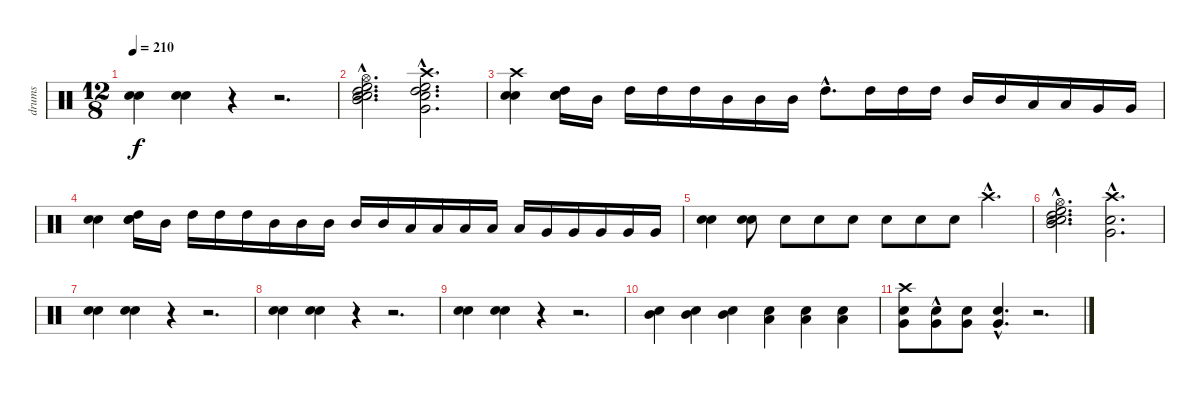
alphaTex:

\track ("drums" "drums") {instrument percussion}
\staff {score}
\articulation defaults
\ts (12 8)
\tempo 210
\clef neutral
\ks c
("Electric Snare (hit)" "Snare (hit) 2").4{dy f} ("Electric Snare (hit)" "Snare (hit) 2").4 r.4 r.2{d} |
("Mid Tom (hit)"{hac} "High Tom (hit)"{hac} "Electric Snare (hit)" "Hi-Hat (open)"{hac} "High Floor Tom (hit)"{hac} "Electric Snare (hit)").2{d} ("Very Low Tom (hit)"{hac} "Electric Snare (hit)"{hac} "High Floor Tom (hit)" "High Tom (hit)" "Crash high (hit)"{hac}).2{d} |
("Electric Snare (hit)" "Snare (hit) 2" "Crash high (hit)").4 ("Electric Snare (hit)" "Snare (hit) 2" "High Tom (hit)").16 "Mid Tom (hit)".16 "High Tom (hit)".16 "High Tom (hit)".16 "High Tom (hit)".16 "Mid Tom (hit)".16 "Mid Tom (hit)".16 "Mid Tom (hit)".16 "High Tom (hit)"{hac}.8{d} "High Tom (hit)".16 "High Tom (hit)".16 "High Tom (hit)".16 "Mid Tom (hit)".16 "Mid Tom (hit)".16 "Low Tom (hit)".16 "Low Tom (hit)".16 "Very Low Tom (hit)".16 "Very Low Tom (hit)".16 |
("Electric Snare (hit)" "Snare (hit) 2").4 ("Electric Snare (hit)" "Snare (hit) 2" "High Tom (hit)").16 "Mid Tom (hit)".16 "High Tom (hit)".16 "High Tom (hit)".16 "High Tom (hit)".16 "Mid Tom (hit)".16 "Mid Tom (hit)".16 "Mid Tom (hit)".16 "Mid Tom (hit)".16 "Mid Tom (hit)".16 "Low Tom (hit)".16 "Low Tom (hit)".16 "Low Tom (hit)".16 "Low Tom (hit)".16 "Low Tom (hit)".16 "Very Low Tom (hit)".16 "Very Low Tom (hit)".16 "Very Low Tom (hit)".16 "Very Low Tom (hit)".16 "Very Low Tom (hit)".16 |
("Electric Snare (hit)" "Snare (hit) 2").4 ("Snare (hit) 2" "Electric Snare (hit)").8 "Electric Snare (hit)".8 "Electric Snare (hit)".8 "Electric Snare (hit)".8 "Electric Snare (hit)".8 "Snare (hit) 2".8 "Electric Snare (hit)".8 "Crash high (hit)"{hac}.4{d} |
("Mid Tom (hit)"{hac} "Electric Snare (hit)" "High Tom (hit)"{hac} "Hi-Hat (open)"{hac} "High Floor Tom (hit)"{hac} "Electric Snare (hit)").2{d} ("Very Low Tom (hit)"{hac} "Crash high (hit)"{hac} "Electric Snare (hit)"{hac}).2{d} |
("Electric Snare (hit)" "Snare (hit) 2").4 ("Electric Snare (hit)" "Snare (hit) 2").4 r.4 r.2{d} |
("Electric Snare (hit)" "Snare (hit) 2").4 ("Electric Snare (hit)" "Snare (hit) 2").4 r.4 r.2{d} |
("Electric Snare (hit)" "Snare (hit) 2").4 ("Electric Snare (hit)" "Snare (hit) 2").4 r.4 r.2{d} |
("Mid Tom (hit)" "Electric Snare (hit)").4 ("Mid Tom (hit)" "Electric Snare (hit)").4 ("Mid Tom (hit)" "Electric Snare (hit)").4 ("Low Tom (hit)" "Electric Snare (hit)").4 ("Low Tom (hit)" "Electric Snare (hit)").4 ("Low Tom (hit)" "Electric Snare (hit)").4 |
("Very Low Tom (hit)" "Electric Snare (hit)" "Crash high (hit)").8 ("Very Low Tom (hit)"{hac} "Electric Snare (hit)"{hac}).8 ("Very Low Tom (hit)" "Electric Snare (hit)").8 ("Very Low Tom (hit)"{hac} "Electric Snare (hit)"{hac}).4{d} r.2{d}
